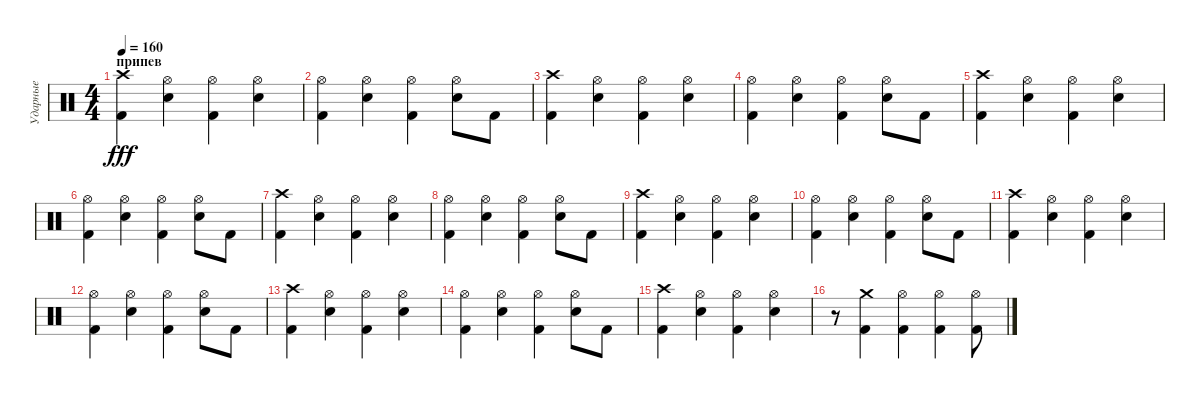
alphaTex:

\track ("Ударные" "Ударные") {instrument percussion}
\staff {score}
\articulation defaults
\ts (4 4)
\section ("" "припев")
\tempo 160
\clef neutral
\ks c
("Kick (hit) 2" "Crash high (hit)").4{dy fff} ("Electric Snare (hit)" "Hi-Hat (open)").4 ("Kick (hit) 2" "Hi-Hat (open)").4 ("Electric Snare (hit)" "Hi-Hat (open)").4 |
("Kick (hit) 2" "Hi-Hat (open)").4 ("Electric Snare (hit)" "Hi-Hat (open)").4 ("Kick (hit) 2" "Hi-Hat (open)").4 ("Electric Snare (hit)" "Hi-Hat (open)").8 "Kick (hit) 2".8 |
("Kick (hit) 2" "Crash high (hit)").4 ("Electric Snare (hit)" "Hi-Hat (open)").4 ("Kick (hit) 2" "Hi-Hat (open)").4 ("Electric Snare (hit)" "Hi-Hat (open)").4 |
("Kick (hit) 2" "Hi-Hat (open)").4 ("Electric Snare (hit)" "Hi-Hat (open)").4 ("Kick (hit) 2" "Hi-Hat (open)").4 ("Electric Snare (hit)" "Hi-Hat (open)").8 "Kick (hit) 2".8 |
("Kick (hit) 2" "Crash high (hit)").4 ("Electric Snare (hit)" "Hi-Hat (open)").4 ("Kick (hit) 2" "Hi-Hat (open)").4 ("Electric Snare (hit)" "Hi-Hat (open)").4 |
("Kick (hit) 2" "Hi-Hat (open)").4 ("Electric Snare (hit)" "Hi-Hat (open)").4 ("Kick (hit) 2" "Hi-Hat (open)").4 ("Electric Snare (hit)" "Hi-Hat (open)").8 "Kick (hit) 2".8 |
("Kick (hit) 2" "Crash high (hit)").4 ("Electric Snare (hit)" "Hi-Hat (open)").4 ("Kick (hit) 2" "Hi-Hat (open)").4 ("Electric Snare (hit)" "Hi-Hat (open)").4 |
("Kick (hit) 2" "Hi-Hat (open)").4 ("Electric Snare (hit)" "Hi-Hat (open)").4 ("Kick (hit) 2" "Hi-Hat (open)").4 ("Electric Snare (hit)" "Hi-Hat (open)").8 "Kick (hit) 2".8 |
("Kick (hit) 2" "Crash high (hit)").4 ("Electric Snare (hit)" "Hi-Hat (open)").4 ("Kick (hit) 2" "Hi-Hat (open)").4 ("Electric Snare (hit)" "Hi-Hat (open)").4 |
("Kick (hit) 2" "Hi-Hat (open)").4 ("Electric Snare (hit)" "Hi-Hat (open)").4 ("Kick (hit) 2" "Hi-Hat (open)").4 ("Electric Snare (hit)" "Hi-Hat (open)").8 "Kick (hit) 2".8 |
("Kick (hit) 2" "Crash high (hit)").4 ("Electric Snare (hit)" "Hi-Hat (open)").4 ("Kick (hit) 2" "Hi-Hat (open)").4 ("Electric Snare (hit)" "Hi-Hat (open)").4 |
("Kick (hit) 2" "Hi-Hat (open)").4 ("Electric Snare (hit)" "Hi-Hat (open)").4 ("Kick (hit) 2" "Hi-Hat (open)").4 ("Electric Snare (hit)" "Hi-Hat (open)").8 "Kick (hit) 2".8 |
("Kick (hit) 2" "Crash high (hit)").4 ("Electric Snare (hit)" "Hi-Hat (open)").4 ("Kick (hit) 2" "Hi-Hat (open)").4 ("Electric Snare (hit)" "Hi-Hat (open)").4 |
("Kick (hit) 2" "Hi-Hat (open)").4 ("Electric Snare (hit)" "Hi-Hat (open)").4 ("Kick (hit) 2" "Hi-Hat (open)").4 ("Electric Snare (hit)" "Hi-Hat (open)").8 "Kick (hit) 2".8 |
("Kick (hit) 2" "Crash high (hit)").4 ("Electric Snare (hit)" "Hi-Hat (open)").4 ("Kick (hit) 2" "Hi-Hat (open)").4 ("Electric Snare (hit)" "Hi-Hat (open)").4 |
r.8 ("Kick (hit) 2" "Crash medium (hit)").4 ("Kick (hit) 2" "Hi-Hat (open)").4 ("Kick (hit) 2" "Hi-Hat (open)").4 ("Kick (hit) 2" "Hi-Hat (open)").8
